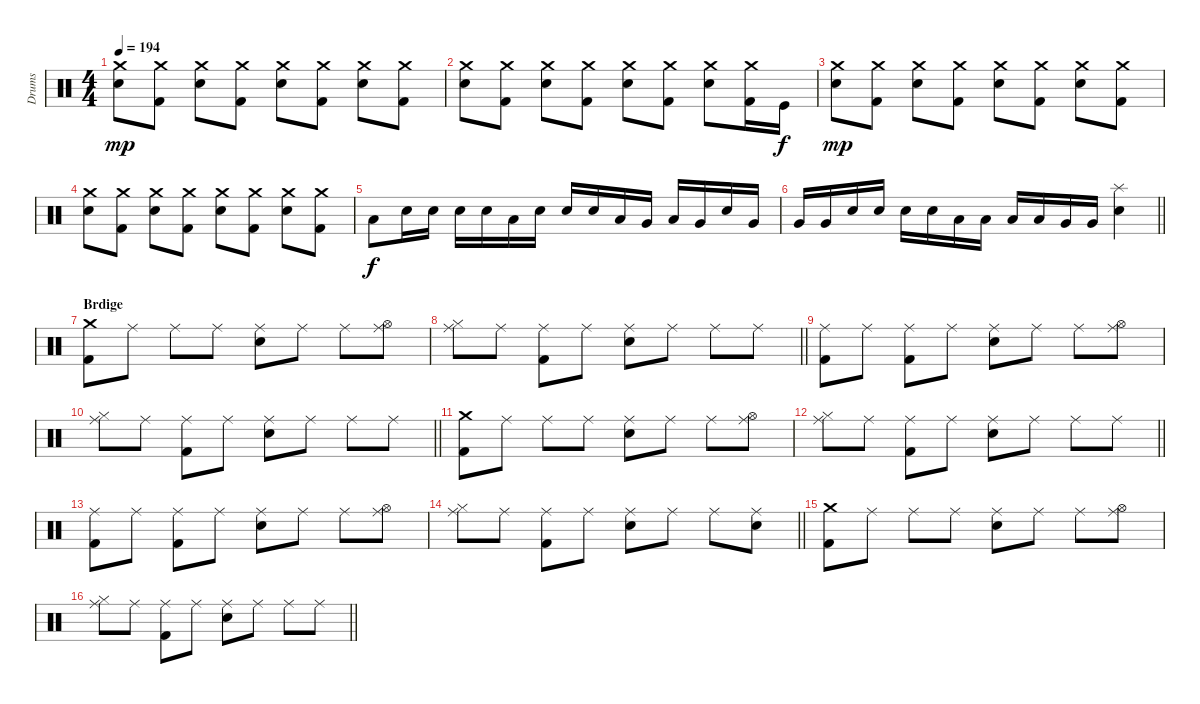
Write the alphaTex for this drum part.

\track ("Drums" "Drums") {instrument percussion}
\staff {score}
\articulation defaults
\ts (4 4)
\tempo 194
\clef neutral
\ks c
("Crash medium (hit)" "Snare (hit) 2").8{dy mp} ("Crash medium (hit)" "Kick (hit) 2").8 ("Crash medium (hit)" "Snare (hit) 2").8 ("Crash medium (hit)" "Kick (hit) 2").8 ("Crash medium (hit)" "Snare (hit) 2").8 ("Crash medium (hit)" "Kick (hit) 2").8 ("Crash medium (hit)" "Snare (hit) 2").8 ("Crash medium (hit)" "Kick (hit) 2").8 |
("Crash medium (hit)" "Snare (hit) 2").8 ("Crash medium (hit)" "Kick (hit) 2").8 ("Crash medium (hit)" "Snare (hit) 2").8 ("Crash medium (hit)" "Kick (hit) 2").8 ("Crash medium (hit)" "Snare (hit) 2").8 ("Crash medium (hit)" "Kick (hit) 2").8 ("Crash medium (hit)" "Snare (hit) 2").8 ("Crash medium (hit)" "Kick (hit) 2").16 "Kick (hit)".16{dy f} |
("Crash medium (hit)" "Snare (hit) 2").8{dy mp} ("Crash medium (hit)" "Kick (hit) 2").8 ("Crash medium (hit)" "Snare (hit) 2").8 ("Crash medium (hit)" "Kick (hit) 2").8 ("Crash medium (hit)" "Snare (hit) 2").8 ("Crash medium (hit)" "Kick (hit) 2").8 ("Crash medium (hit)" "Snare (hit) 2").8 ("Crash medium (hit)" "Kick (hit) 2").8 |
("Crash medium (hit)" "Snare (hit) 2").8 ("Crash medium (hit)" "Kick (hit) 2").8 ("Crash medium (hit)" "Snare (hit) 2").8 ("Crash medium (hit)" "Kick (hit) 2").8 ("Crash medium (hit)" "Snare (hit) 2").8 ("Crash medium (hit)" "Kick (hit) 2").8 ("Crash medium (hit)" "Snare (hit) 2").8 ("Crash medium (hit)" "Kick (hit) 2").8 |
"Low Tom (hit)".8{dy f} "Snare (hit) 2".16 "Snare (hit) 2".16 "Snare (hit) 2".16 "Snare (hit) 2".16 "Low Tom (hit)".16 "Snare (hit) 2".16 "Snare (hit) 2".16 "Snare (hit) 2".16 "Low Tom (hit)".16 "Very Low Tom (hit)".16 "Low Tom (hit)".16 "Very Low Tom (hit)".16 "Snare (hit) 2".16 "Very Low Tom (hit)".16 |
\barLineRight lightlight "Very Low Tom (hit)".16 "Very Low Tom (hit)".16 "Snare (hit) 2".16 "Snare (hit) 2".16 "Snare (hit) 2".16 "Snare (hit) 2".16 "Low Tom (hit)".16 "Low Tom (hit)".16 "Low Tom (hit)".16 "Low Tom (hit)".16 "Very Low Tom (hit)".16 "Very Low Tom (hit)".16
("Splash (hit)" "Snare (hit) 2").4 |
\section ("" "Brdige")
("Crash medium (hit)" "Kick (hit) 2").8 "Ride (middle)".8 "Ride (middle)".8 "Ride (middle)".8 ("Ride (middle)" "Snare (hit) 2").8 "Ride (middle)".8 "Ride (middle)".8 ("Ride (middle)" "Hi-Hat (open)").8 |
\barLineRight lightlight
("Ride (middle)" "Hi-Hat (closed)").8 "Ride (middle)".8 ("Ride (middle)" "Kick (hit) 2").8 "Ride (middle)".8 ("Ride (middle)" "Snare (hit) 2").8 "Ride (middle)".8 "Ride (middle)".8 "Ride (middle)".8 |
("Ride (middle)" "Kick (hit) 2").8 "Ride (middle)".8 ("Ride (middle)" "Kick (hit) 2").8 "Ride (middle)".8 ("Ride (middle)" "Snare (hit) 2").8 "Ride (middle)".8 "Ride (middle)".8 ("Ride (middle)" "Hi-Hat (open)").8 |
\barLineRight lightlight
("Ride (middle)" "Hi-Hat (closed)").8 "Ride (middle)".8 ("Ride (middle)" "Kick (hit) 2").8 "Ride (middle)".8 ("Ride (middle)" "Snare (hit) 2").8 "Ride (middle)".8 "Ride (middle)".8 "Ride (middle)".8 |
("Crash medium (hit)" "Kick (hit) 2").8 "Ride (middle)".8 "Ride (middle)".8 "Ride (middle)".8 ("Ride (middle)" "Snare (hit) 2").8 "Ride (middle)".8 "Ride (middle)".8 ("Ride (middle)" "Hi-Hat (open)").8 |
\barLineRight lightlight
("Ride (middle)" "Hi-Hat (closed)").8 "Ride (middle)".8 ("Ride (middle)" "Kick (hit) 2").8 "Ride (middle)".8 ("Ride (middle)" "Snare (hit) 2").8 "Ride (middle)".8 "Ride (middle)".8 "Ride (middle)".8 |
("Ride (middle)" "Kick (hit) 2").8 "Ride (middle)".8 ("Ride (middle)" "Kick (hit) 2").8 "Ride (middle)".8 ("Ride (middle)" "Snare (hit) 2").8 "Ride (middle)".8 "Ride (middle)".8 ("Ride (middle)" "Hi-Hat (open)").8 |
\barLineRight lightlight
("Ride (middle)" "Hi-Hat (closed)").8 "Ride (middle)".8 ("Ride (middle)" "Kick (hit) 2").8 "Ride (middle)".8 ("Ride (middle)" "Snare (hit) 2").8 "Ride (middle)".8 "Ride (middle)".8 ("Ride (middle)" "Snare (hit) 2").8 |
("Crash medium (hit)" "Kick (hit) 2").8 "Ride (middle)".8 "Ride (middle)".8 "Ride (middle)".8 ("Ride (middle)" "Snare (hit) 2").8 "Ride (middle)".8 "Ride (middle)".8 ("Ride (middle)" "Hi-Hat (open)").8 |
\barLineRight lightlight
("Ride (middle)" "Hi-Hat (closed)").8 "Ride (middle)".8 ("Ride (middle)" "Kick (hit) 2").8 "Ride (middle)".8 ("Ride (middle)" "Snare (hit) 2").8 "Ride (middle)".8 "Ride (middle)".8 "Ride (middle)".8
